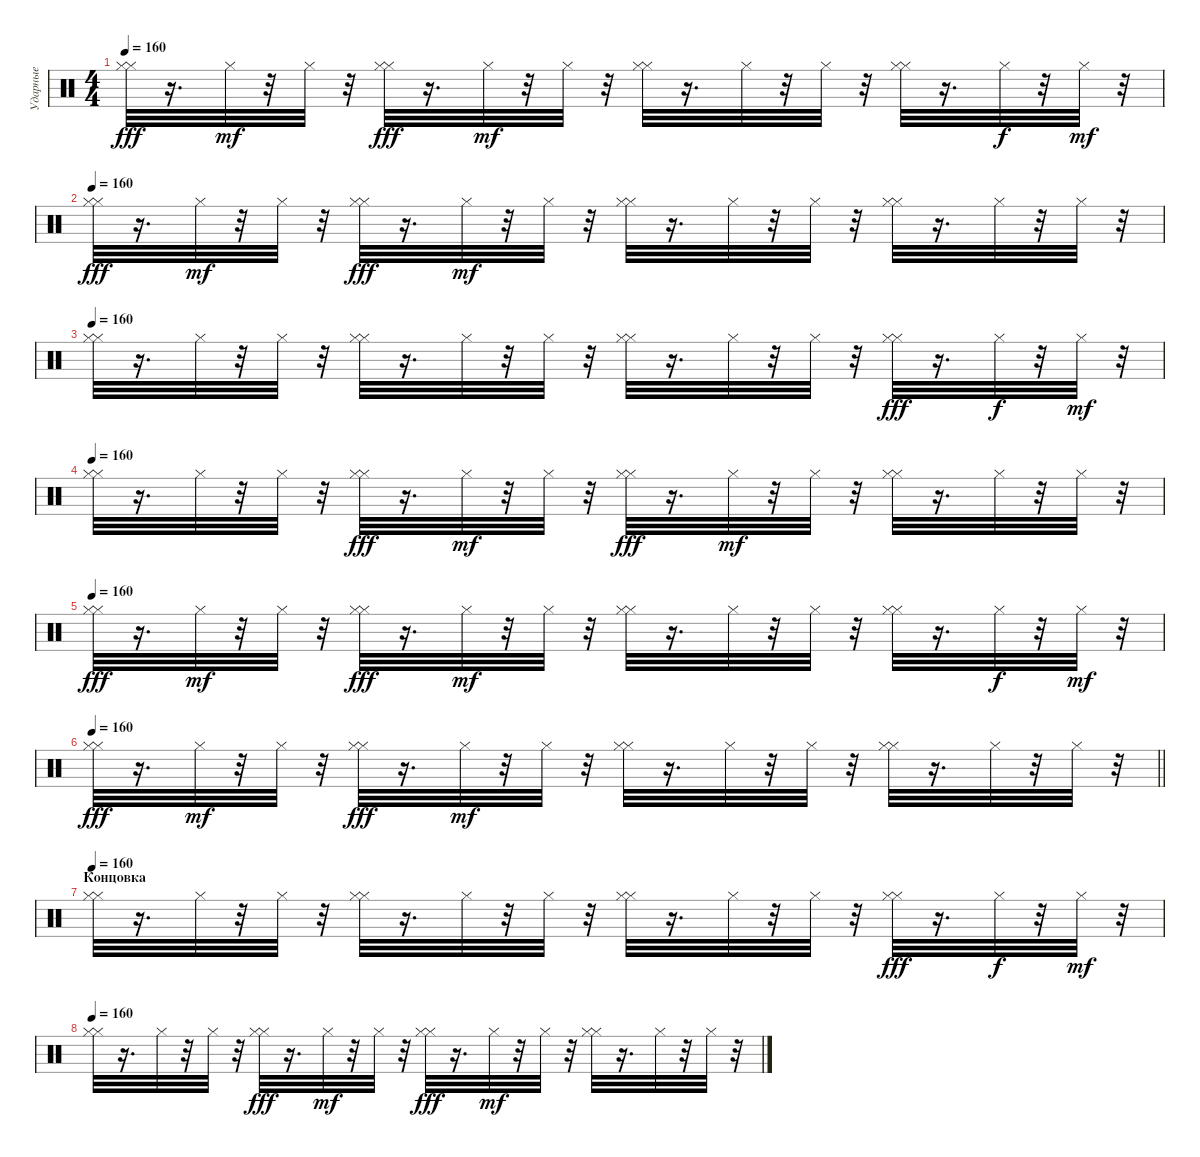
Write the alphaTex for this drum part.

\track ("Ударные" "Ударные") {instrument percussion}
\staff {score}
\articulation defaults
\ts (4 4)
\tempo 160
\clef neutral
\ks c
("Hi-Hat (closed)" "Hi-Hat (closed)").32{dy fff} r.16{d} "Hi-Hat (closed)".32{dy mf} r.32 "Hi-Hat (closed)".32 r.32 ("Hi-Hat (closed)" "Hi-Hat (closed)").32{dy fff} r.16{d} "Hi-Hat (closed)".32{dy mf} r.32 "Hi-Hat (closed)".32 r.32 ("Hi-Hat (closed)" "Hi-Hat (closed)").32 r.16{d} "Hi-Hat (closed)".32 r.32 "Hi-Hat (closed)".32 r.32 ("Hi-Hat (closed)" "Hi-Hat (closed)").32 r.16{d} "Hi-Hat (closed)".32{dy f} r.32 "Hi-Hat (closed)".32{dy mf} r.32 |
\tempo 160
("Hi-Hat (closed)" "Hi-Hat (closed)").32{dy fff} r.16{d} "Hi-Hat (closed)".32{dy mf} r.32 "Hi-Hat (closed)".32 r.32 ("Hi-Hat (closed)" "Hi-Hat (closed)").32{dy fff} r.16{d} "Hi-Hat (closed)".32{dy mf} r.32 "Hi-Hat (closed)".32 r.32 ("Hi-Hat (closed)" "Hi-Hat (closed)").32 r.16{d} "Hi-Hat (closed)".32 r.32 "Hi-Hat (closed)".32 r.32 ("Hi-Hat (closed)" "Hi-Hat (closed)").32 r.16{d} "Hi-Hat (closed)".32 r.32 "Hi-Hat (closed)".32 r.32 |
\tempo 160
("Hi-Hat (closed)" "Hi-Hat (closed)").32 r.16{d} "Hi-Hat (closed)".32 r.32 "Hi-Hat (closed)".32 r.32 ("Hi-Hat (closed)" "Hi-Hat (closed)").32 r.16{d} "Hi-Hat (closed)".32 r.32 "Hi-Hat (closed)".32 r.32 ("Hi-Hat (closed)" "Hi-Hat (closed)").32 r.16{d} "Hi-Hat (closed)".32 r.32 "Hi-Hat (closed)".32 r.32 ("Hi-Hat (closed)" "Hi-Hat (closed)").32{dy fff} r.16{d} "Hi-Hat (closed)".32{dy f} r.32 "Hi-Hat (closed)".32{dy mf} r.32 |
\tempo 160
("Hi-Hat (closed)" "Hi-Hat (closed)").32 r.16{d} "Hi-Hat (closed)".32 r.32 "Hi-Hat (closed)".32 r.32 ("Hi-Hat (closed)" "Hi-Hat (closed)").32{dy fff} r.16{d} "Hi-Hat (closed)".32{dy mf} r.32 "Hi-Hat (closed)".32 r.32 ("Hi-Hat (closed)" "Hi-Hat (closed)").32{dy fff} r.16{d} "Hi-Hat (closed)".32{dy mf} r.32 "Hi-Hat (closed)".32 r.32 ("Hi-Hat (closed)" "Hi-Hat (closed)").32 r.16{d} "Hi-Hat (closed)".32 r.32 "Hi-Hat (closed)".32 r.32 |
\tempo 160
("Hi-Hat (closed)" "Hi-Hat (closed)").32{dy fff} r.16{d} "Hi-Hat (closed)".32{dy mf} r.32 "Hi-Hat (closed)".32 r.32 ("Hi-Hat (closed)" "Hi-Hat (closed)").32{dy fff} r.16{d} "Hi-Hat (closed)".32{dy mf} r.32 "Hi-Hat (closed)".32 r.32 ("Hi-Hat (closed)" "Hi-Hat (closed)").32 r.16{d} "Hi-Hat (closed)".32 r.32 "Hi-Hat (closed)".32 r.32 ("Hi-Hat (closed)" "Hi-Hat (closed)").32 r.16{d} "Hi-Hat (closed)".32{dy f} r.32 "Hi-Hat (closed)".32{dy mf} r.32 |
\tempo 160
\barLineRight lightlight
("Hi-Hat (closed)" "Hi-Hat (closed)").32{dy fff} r.16{d} "Hi-Hat (closed)".32{dy mf} r.32 "Hi-Hat (closed)".32 r.32 ("Hi-Hat (closed)" "Hi-Hat (closed)").32{dy fff} r.16{d} "Hi-Hat (closed)".32{dy mf} r.32 "Hi-Hat (closed)".32 r.32 ("Hi-Hat (closed)" "Hi-Hat (closed)").32 r.16{d} "Hi-Hat (closed)".32 r.32 "Hi-Hat (closed)".32 r.32 ("Hi-Hat (closed)" "Hi-Hat (closed)").32 r.16{d} "Hi-Hat (closed)".32 r.32 "Hi-Hat (closed)".32 r.32 |
\section ("" "Концовка")
\tempo 160
("Hi-Hat (closed)" "Hi-Hat (closed)").32 r.16{d} "Hi-Hat (closed)".32 r.32 "Hi-Hat (closed)".32 r.32 ("Hi-Hat (closed)" "Hi-Hat (closed)").32 r.16{d} "Hi-Hat (closed)".32 r.32 "Hi-Hat (closed)".32 r.32 ("Hi-Hat (closed)" "Hi-Hat (closed)").32 r.16{d} "Hi-Hat (closed)".32 r.32 "Hi-Hat (closed)".32 r.32 ("Hi-Hat (closed)" "Hi-Hat (closed)").32{dy fff} r.16{d} "Hi-Hat (closed)".32{dy f} r.32 "Hi-Hat (closed)".32{dy mf} r.32 |
\tempo 160
("Hi-Hat (closed)" "Hi-Hat (closed)").32 r.16{d} "Hi-Hat (closed)".32 r.32 "Hi-Hat (closed)".32 r.32 ("Hi-Hat (closed)" "Hi-Hat (closed)").32{dy fff} r.16{d} "Hi-Hat (closed)".32{dy mf} r.32 "Hi-Hat (closed)".32 r.32 ("Hi-Hat (closed)" "Hi-Hat (closed)").32{dy fff} r.16{d} "Hi-Hat (closed)".32{dy mf} r.32 "Hi-Hat (closed)".32 r.32 ("Hi-Hat (closed)" "Hi-Hat (closed)").32 r.16{d} "Hi-Hat (closed)".32 r.32 "Hi-Hat (closed)".32 r.32
